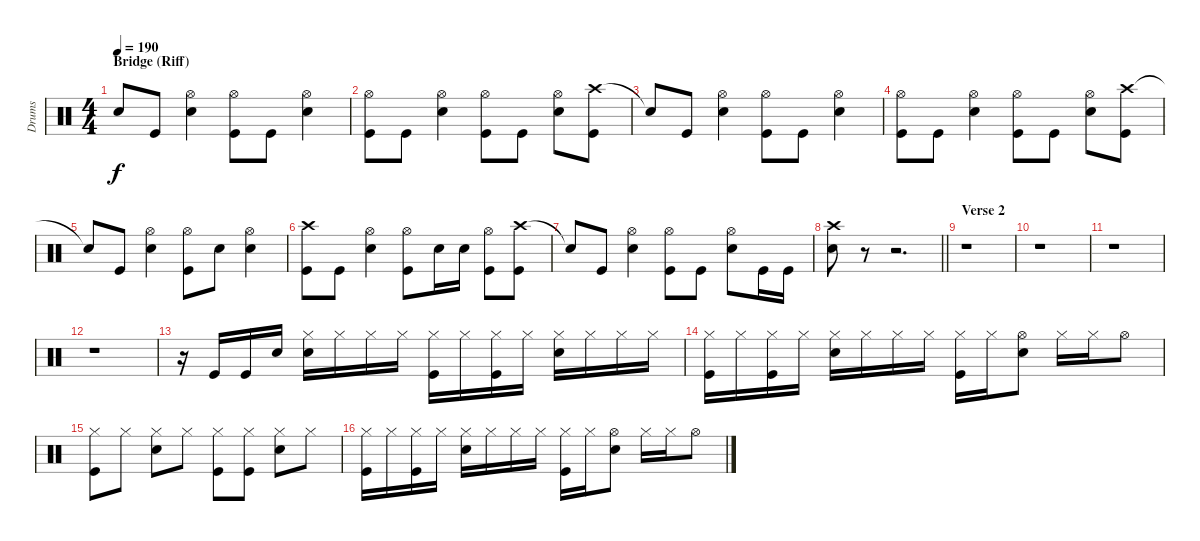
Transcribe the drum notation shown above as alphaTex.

\track ("Drums" "Drums") {instrument percussion}
\staff {score}
\articulation defaults
\ts (4 4)
\section ("" "Bridge (Riff)")
\tempo 190
\clef neutral
\ks c "Snare (hit)"{t}.8{dy f} "Kick (hit)".8
("Hi-Hat (open)" "Snare (hit) 2").4 ("Hi-Hat (open)" "Kick (hit)").8 "Kick (hit)".8 ("Hi-Hat (open)" "Snare (hit) 2").4 |
("Hi-Hat (open)" "Kick (hit)").8 "Kick (hit)".8 ("Hi-Hat (open)" "Snare (hit) 2").4 ("Hi-Hat (open)" "Kick (hit)").8 "Kick (hit)".8 ("Hi-Hat (open)" "Snare (hit) 2").8 ("Crash high (hit)" "Kick (hit)").8 |
"Snare (hit)"{t}.8 "Kick (hit)".8 ("Hi-Hat (open)" "Snare (hit) 2").4 ("Hi-Hat (open)" "Kick (hit)").8 "Kick (hit)".8 ("Hi-Hat (open)" "Snare (hit) 2").4 |
("Hi-Hat (open)" "Kick (hit)").8 "Kick (hit)".8 ("Hi-Hat (open)" "Snare (hit) 2").4 ("Hi-Hat (open)" "Kick (hit)").8 "Kick (hit)".8 ("Hi-Hat (open)" "Snare (hit) 2").8 ("Crash high (hit)" "Kick (hit)").8 |
"Snare (hit)"{t}.8 "Kick (hit)".8 ("Hi-Hat (open)" "Snare (hit) 2").4 ("Hi-Hat (open)" "Kick (hit)").8 "Snare (hit) 2".8 ("Hi-Hat (open)" "Snare (hit) 2").4 |
("Crash high (hit)" "Kick (hit)").8 "Kick (hit)".8 ("Hi-Hat (open)" "Snare (hit) 2").4 ("Hi-Hat (open)" "Kick (hit)").8 "Snare (hit) 2".16 "Snare (hit) 2".16 ("Hi-Hat (open)" "Kick (hit)").8 ("Crash high (hit)" "Kick (hit)").8 |
"Snare (hit)"{t}.8 "Kick (hit)".8 ("Hi-Hat (open)" "Snare (hit) 2").4 ("Hi-Hat (open)" "Kick (hit)").8 "Kick (hit)".8 ("Hi-Hat (open)" "Snare (hit) 2").8 "Kick (hit)".16 "Kick (hit)".16 |
\barLineRight lightlight
("Crash high (hit)" "Snare (hit) 2").8 r.8 r.2{d} |
\section ("" "Verse 2")
r.1 |
r.1 |
r.1 |
r.1 |
r.16 "Kick (hit)".16 "Kick (hit)".16 "Snare (hit) 2".16 ("Hi-Hat (closed)" "Snare (hit) 2").16 "Hi-Hat (closed)".16 "Hi-Hat (closed)".16 "Hi-Hat (closed)".16 ("Hi-Hat (closed)" "Kick (hit)").16 "Hi-Hat (closed)".16 ("Hi-Hat (closed)" "Kick (hit)").16 "Hi-Hat (closed)".16 ("Hi-Hat (closed)" "Snare (hit) 2").16 "Hi-Hat (closed)".16 "Hi-Hat (closed)".16 "Hi-Hat (closed)".16 |
("Hi-Hat (closed)" "Kick (hit)").16 "Hi-Hat (closed)".16 ("Hi-Hat (closed)" "Kick (hit)").16 "Hi-Hat (closed)".16 ("Hi-Hat (closed)" "Snare (hit) 2").16 "Hi-Hat (closed)".16 "Hi-Hat (closed)".16 "Hi-Hat (closed)".16 ("Hi-Hat (closed)" "Kick (hit)").16 "Hi-Hat (closed)".16 ("Hi-Hat (open)" "Snare (hit) 2").8 "Hi-Hat (closed)".16 "Hi-Hat (closed)".16 "Hi-Hat (open)".8 |
("Hi-Hat (closed)" "Kick (hit)").8 "Hi-Hat (closed)".8 ("Hi-Hat (closed)" "Snare (hit) 2").8 "Hi-Hat (closed)".8 ("Hi-Hat (closed)" "Kick (hit)").8 ("Hi-Hat (closed)" "Kick (hit)").8 ("Hi-Hat (closed)" "Snare (hit) 2").8 "Hi-Hat (closed)".8 |
("Hi-Hat (closed)" "Kick (hit)").16 "Hi-Hat (closed)".16 ("Hi-Hat (closed)" "Kick (hit)").16 "Hi-Hat (closed)".16 ("Hi-Hat (closed)" "Snare (hit) 2").16 "Hi-Hat (closed)".16 "Hi-Hat (closed)".16 "Hi-Hat (closed)".16 ("Hi-Hat (closed)" "Kick (hit)").16 "Hi-Hat (closed)".16 ("Hi-Hat (open)" "Snare (hit) 2").8 "Hi-Hat (closed)".16 "Hi-Hat (closed)".16 "Hi-Hat (open)".8
